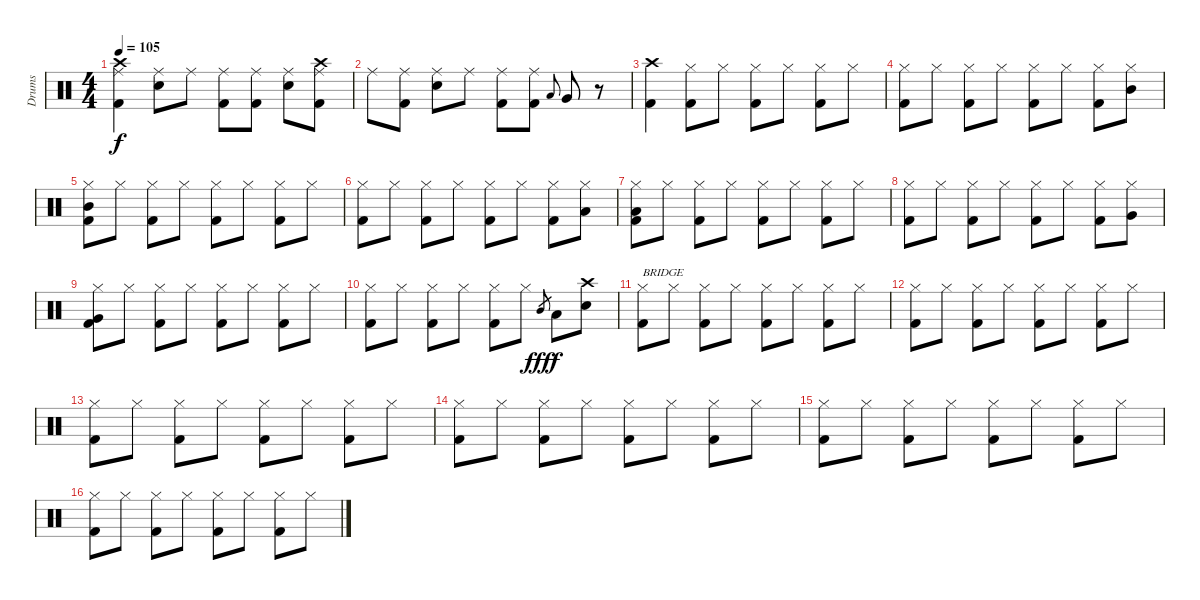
\track ("Drums" "Drums") {instrument percussion}
\staff {score}
\articulation defaults
\ts (4 4)
\tempo 105
\clef neutral
\ks c
("Ride (middle)" "Crash high (hit)" "Kick (hit) 2").4{dy f} ("Ride (middle)" "Electric Snare (hit)").8 "Ride (middle)".8 ("Ride (middle)" "Kick (hit) 2").8 ("Ride (middle)" "Kick (hit) 2").8 ("Ride (middle)" "Electric Snare (hit)").8 ("Ride (middle)" "Crash high (hit)" "Kick (hit) 2").8 |
"Ride (middle)".8 ("Ride (middle)" "Kick (hit) 2").8 ("Ride (middle)" "Electric Snare (hit)").8 "Ride (middle)".8 ("Ride (middle)" "Kick (hit) 2").8 ("Ride (middle)" "Kick (hit) 2").8 "Low Tom (hit)".8{gr onbeat} "Very Low Tom (hit)".8 r.8 |
("Crash high (hit)" "Kick (hit) 2").4 ("Hi-Hat (closed)" "Kick (hit) 2").8 "Hi-Hat (closed)".8 ("Hi-Hat (closed)" "Kick (hit) 2").8 "Hi-Hat (closed)".8 ("Hi-Hat (closed)" "Kick (hit) 2").8 "Hi-Hat (closed)".8 |
("Hi-Hat (closed)" "Kick (hit) 2").8 "Hi-Hat (closed)".8 ("Hi-Hat (closed)" "Kick (hit) 2").8 "Hi-Hat (closed)".8 ("Hi-Hat (closed)" "Kick (hit) 2").8 "Hi-Hat (closed)".8 ("Hi-Hat (closed)" "Kick (hit) 2").8 ("Hi-Hat (closed)" "Mid Tom (hit)").8 |
("Hi-Hat (closed)" "Mid Tom (hit)" "Kick (hit) 2").8 "Hi-Hat (closed)".8 ("Hi-Hat (closed)" "Kick (hit) 2").8 "Hi-Hat (closed)".8 ("Hi-Hat (closed)" "Kick (hit) 2").8 "Hi-Hat (closed)".8 ("Hi-Hat (closed)" "Kick (hit) 2").8 "Hi-Hat (closed)".8 |
("Hi-Hat (closed)" "Kick (hit) 2").8 "Hi-Hat (closed)".8 ("Hi-Hat (closed)" "Kick (hit) 2").8 "Hi-Hat (closed)".8 ("Hi-Hat (closed)" "Kick (hit) 2").8 "Hi-Hat (closed)".8 ("Hi-Hat (closed)" "Kick (hit) 2").8 ("Hi-Hat (closed)" "Low Tom (hit)").8 |
("Hi-Hat (closed)" "Low Tom (hit)" "Kick (hit) 2").8 "Hi-Hat (closed)".8 ("Hi-Hat (closed)" "Kick (hit) 2").8 "Hi-Hat (closed)".8 ("Hi-Hat (closed)" "Kick (hit) 2").8 "Hi-Hat (closed)".8 ("Hi-Hat (closed)" "Kick (hit) 2").8 "Hi-Hat (closed)".8 |
("Hi-Hat (closed)" "Kick (hit) 2").8 "Hi-Hat (closed)".8 ("Hi-Hat (closed)" "Kick (hit) 2").8 "Hi-Hat (closed)".8 ("Hi-Hat (closed)" "Kick (hit) 2").8 "Hi-Hat (closed)".8 ("Hi-Hat (closed)" "Kick (hit) 2").8 ("Hi-Hat (closed)" "Very Low Tom (hit)").8 |
("Hi-Hat (closed)" "Very Low Tom (hit)" "Kick (hit) 2").8 "Hi-Hat (closed)".8 ("Hi-Hat (closed)" "Kick (hit) 2").8 "Hi-Hat (closed)".8 ("Hi-Hat (closed)" "Kick (hit) 2").8 "Hi-Hat (closed)".8 ("Hi-Hat (closed)" "Kick (hit) 2").8 "Hi-Hat (closed)".8 |
("Hi-Hat (closed)" "Kick (hit) 2").8 "Hi-Hat (closed)".8 ("Hi-Hat (closed)" "Kick (hit) 2").8 "Hi-Hat (closed)".8 ("Hi-Hat (closed)" "Kick (hit) 2").8 "Hi-Hat (closed)".8 "Mid Tom (hit)".8{gr dy fff} "Low Tom (hit)".8{dy f} ("Crash high (hit)" "Electric Snare (hit)").8 |
("Hi-Hat (closed)" "Kick (hit) 2").8{txt "BRIDGE"} "Hi-Hat (closed)".8 ("Hi-Hat (closed)" "Kick (hit) 2").8 "Hi-Hat (closed)".8 ("Hi-Hat (closed)" "Kick (hit) 2").8 "Hi-Hat (closed)".8 ("Hi-Hat (closed)" "Kick (hit) 2").8 "Hi-Hat (closed)".8 |
("Hi-Hat (closed)" "Kick (hit) 2").8 "Hi-Hat (closed)".8 ("Hi-Hat (closed)" "Kick (hit) 2").8 "Hi-Hat (closed)".8 ("Hi-Hat (closed)" "Kick (hit) 2").8 "Hi-Hat (closed)".8 ("Hi-Hat (closed)" "Kick (hit) 2").8 "Hi-Hat (closed)".8 |
("Hi-Hat (closed)" "Kick (hit) 2").8 "Hi-Hat (closed)".8 ("Hi-Hat (closed)" "Kick (hit) 2").8 "Hi-Hat (closed)".8 ("Hi-Hat (closed)" "Kick (hit) 2").8 "Hi-Hat (closed)".8 ("Hi-Hat (closed)" "Kick (hit) 2").8 "Hi-Hat (closed)".8 |
("Hi-Hat (closed)" "Kick (hit) 2").8 "Hi-Hat (closed)".8 ("Hi-Hat (closed)" "Kick (hit) 2").8 "Hi-Hat (closed)".8 ("Hi-Hat (closed)" "Kick (hit) 2").8 "Hi-Hat (closed)".8 ("Hi-Hat (closed)" "Kick (hit) 2").8 "Hi-Hat (closed)".8 |
("Hi-Hat (closed)" "Kick (hit) 2").8 "Hi-Hat (closed)".8 ("Hi-Hat (closed)" "Kick (hit) 2").8 "Hi-Hat (closed)".8 ("Hi-Hat (closed)" "Kick (hit) 2").8 "Hi-Hat (closed)".8 ("Hi-Hat (closed)" "Kick (hit) 2").8 "Hi-Hat (closed)".8 |
("Hi-Hat (closed)" "Kick (hit) 2").8 "Hi-Hat (closed)".8 ("Hi-Hat (closed)" "Kick (hit) 2").8 "Hi-Hat (closed)".8 ("Hi-Hat (closed)" "Kick (hit) 2").8 "Hi-Hat (closed)".8 ("Hi-Hat (closed)" "Kick (hit) 2").8 "Hi-Hat (closed)".8
